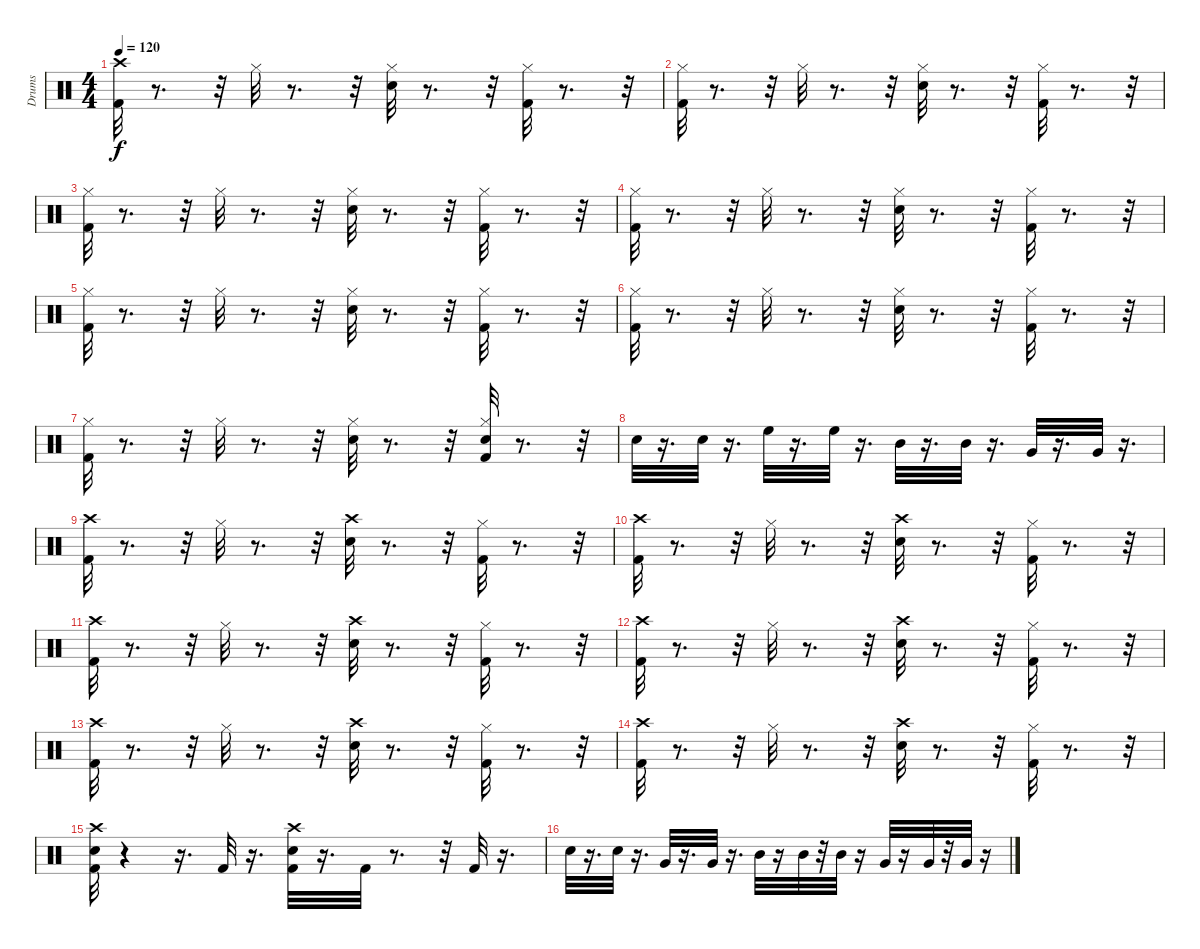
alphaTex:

\track ("Drums" "Drums") {instrument percussion}
\staff {score}
\articulation defaults
\ts (4 4)
\tempo 120
\clef neutral
\ks c
("Crash high (hit)" "Kick (hit) 2").32{dy f} r.8{d} r.32 "Hi-Hat (closed)".32 r.8{d} r.32 ("Snare (hit) 2" "Hi-Hat (closed)").32 r.8{d} r.32 ("Kick (hit) 2" "Hi-Hat (closed)").32 r.8{d} r.32 |
("Hi-Hat (closed)" "Kick (hit) 2").32 r.8{d} r.32 "Hi-Hat (closed)".32 r.8{d} r.32 ("Snare (hit) 2" "Hi-Hat (closed)").32 r.8{d} r.32 ("Kick (hit) 2" "Hi-Hat (closed)").32 r.8{d} r.32 |
("Hi-Hat (closed)" "Kick (hit) 2").32 r.8{d} r.32 "Hi-Hat (closed)".32 r.8{d} r.32 ("Snare (hit) 2" "Hi-Hat (closed)").32 r.8{d} r.32 ("Kick (hit) 2" "Hi-Hat (closed)").32 r.8{d} r.32 |
("Hi-Hat (closed)" "Kick (hit) 2").32 r.8{d} r.32 "Hi-Hat (closed)".32 r.8{d} r.32 ("Snare (hit) 2" "Hi-Hat (closed)").32 r.8{d} r.32 ("Kick (hit) 2" "Hi-Hat (closed)").32 r.8{d} r.32 |
("Hi-Hat (closed)" "Kick (hit) 2").32 r.8{d} r.32 "Hi-Hat (closed)".32 r.8{d} r.32 ("Snare (hit) 2" "Hi-Hat (closed)").32 r.8{d} r.32 ("Kick (hit) 2" "Hi-Hat (closed)").32 r.8{d} r.32 |
("Hi-Hat (closed)" "Kick (hit) 2").32 r.8{d} r.32 "Hi-Hat (closed)".32 r.8{d} r.32 ("Snare (hit) 2" "Hi-Hat (closed)").32 r.8{d} r.32 ("Kick (hit) 2" "Hi-Hat (closed)").32 r.8{d} r.32 |
("Hi-Hat (closed)" "Kick (hit) 2").32 r.8{d} r.32 "Hi-Hat (closed)".32 r.8{d} r.32 ("Snare (hit) 2" "Hi-Hat (closed)").32 r.8{d} r.32 ("Hi-Hat (closed)" "Kick (hit) 2" "Snare (hit) 2").32 r.8{d} r.32 |
"Snare (hit) 2".32 r.16{d} "Snare (hit) 2".32 r.16{d} "High Floor Tom (hit)".32 r.16{d} "High Floor Tom (hit)".32 r.16{d} "Mid Tom (hit)".32 r.16{d} "Mid Tom (hit)".32 r.16{d} "Very Low Tom (hit)".32 r.16{d} "Very Low Tom (hit)".32 r.16{d} |
("Crash high (hit)" "Kick (hit) 2").32 r.8{d} r.32 "Hi-Hat (closed)".32 r.8{d} r.32 ("Crash high (hit)" "Snare (hit) 2").32 r.8{d} r.32 ("Kick (hit) 2" "Hi-Hat (closed)").32 r.8{d} r.32 |
("Crash high (hit)" "Kick (hit) 2").32 r.8{d} r.32 "Hi-Hat (closed)".32 r.8{d} r.32 ("Crash high (hit)" "Snare (hit) 2").32 r.8{d} r.32 ("Kick (hit) 2" "Hi-Hat (closed)").32 r.8{d} r.32 |
("Crash high (hit)" "Kick (hit) 2").32 r.8{d} r.32 "Hi-Hat (closed)".32 r.8{d} r.32 ("Crash high (hit)" "Snare (hit) 2").32 r.8{d} r.32 ("Kick (hit) 2" "Hi-Hat (closed)").32 r.8{d} r.32 |
("Crash high (hit)" "Kick (hit) 2").32 r.8{d} r.32 "Hi-Hat (closed)".32 r.8{d} r.32 ("Crash high (hit)" "Snare (hit) 2").32 r.8{d} r.32 ("Kick (hit) 2" "Hi-Hat (closed)").32 r.8{d} r.32 |
("Crash high (hit)" "Kick (hit) 2").32 r.8{d} r.32 "Hi-Hat (closed)".32 r.8{d} r.32 ("Crash high (hit)" "Snare (hit) 2").32 r.8{d} r.32 ("Kick (hit) 2" "Hi-Hat (closed)").32 r.8{d} r.32 |
("Crash high (hit)" "Kick (hit) 2").32 r.8{d} r.32 "Hi-Hat (closed)".32 r.8{d} r.32 ("Crash high (hit)" "Snare (hit) 2").32 r.8{d} r.32 ("Kick (hit) 2" "Hi-Hat (closed)").32 r.8{d} r.32 |
("Kick (hit) 2" "Snare (hit) 2" "Crash high (hit)").32 r.4 r.16{d} "Kick (hit) 2".32 r.16{d} ("Snare (hit) 2" "Kick (hit) 2" "Crash high (hit)").32 r.16{d} "Kick (hit) 2".32{volume 12 balance 8} r.8{d} r.32 "Kick (hit) 2".32 r.16{d} |
"Snare (hit) 2".32 r.16{d} "Snare (hit) 2".32 r.16{d} "Very Low Tom (hit)".32 r.16{d} "Very Low Tom (hit)".32 r.16{d} "Mid Tom (hit)".32 r.16 "Mid Tom (hit)".32 r.32 "Mid Tom (hit)".32 r.16 "Very Low Tom (hit)".32 r.16 "Very Low Tom (hit)".32 r.32 "Very Low Tom (hit)".32 r.16
